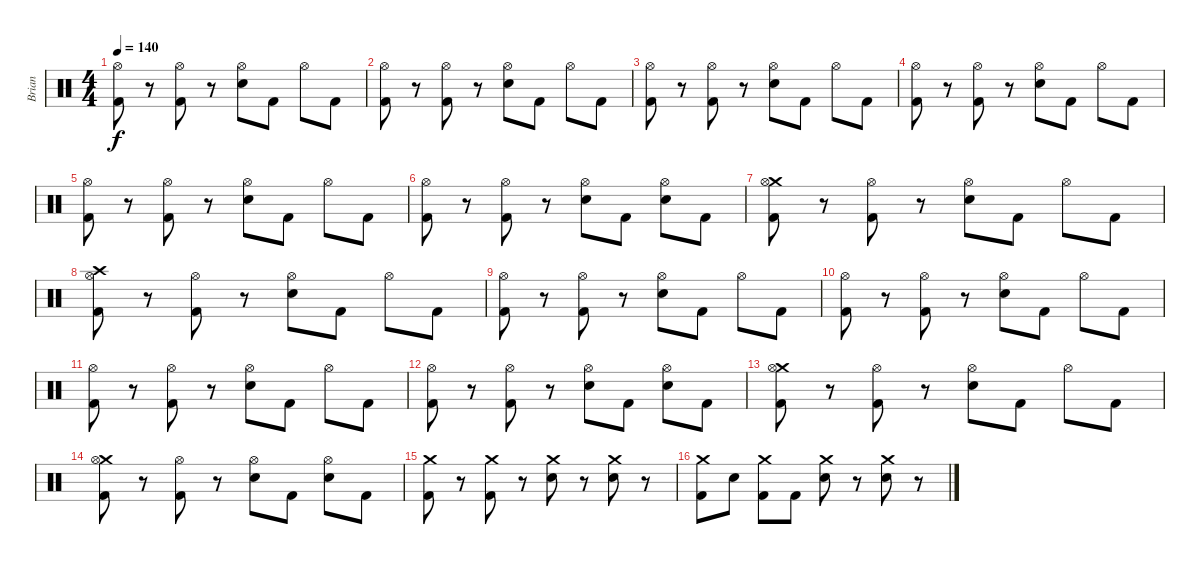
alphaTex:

\track ("Brian" "Brian") {instrument percussion}
\staff {score}
\articulation defaults
\ts (4 4)
\tempo 140
\clef neutral
\ks c
("Hi-Hat (open)" "Kick (hit) 2").8{dy f} r.8 ("Hi-Hat (open)" "Kick (hit) 2").8 r.8 ("Hi-Hat (open)" "Electric Snare (hit)").8 "Kick (hit) 2".8 "Hi-Hat (open)".8 "Kick (hit) 2".8 |
("Hi-Hat (open)" "Kick (hit) 2").8 r.8 ("Hi-Hat (open)" "Kick (hit) 2").8 r.8 ("Hi-Hat (open)" "Electric Snare (hit)").8 "Kick (hit) 2".8 "Hi-Hat (open)".8 "Kick (hit) 2".8 |
("Hi-Hat (open)" "Kick (hit) 2").8 r.8 ("Hi-Hat (open)" "Kick (hit) 2").8 r.8 ("Hi-Hat (open)" "Electric Snare (hit)").8 "Kick (hit) 2".8 "Hi-Hat (open)".8 "Kick (hit) 2".8 |
("Hi-Hat (open)" "Kick (hit) 2").8 r.8 ("Hi-Hat (open)" "Kick (hit) 2").8 r.8 ("Hi-Hat (open)" "Electric Snare (hit)").8 "Kick (hit) 2".8 "Hi-Hat (open)".8 "Kick (hit) 2".8 |
("Hi-Hat (open)" "Kick (hit) 2").8 r.8 ("Hi-Hat (open)" "Kick (hit) 2").8 r.8 ("Hi-Hat (open)" "Electric Snare (hit)").8 "Kick (hit) 2".8 "Hi-Hat (open)".8 "Kick (hit) 2".8 |
("Hi-Hat (open)" "Kick (hit) 2").8 r.8 ("Hi-Hat (open)" "Kick (hit) 2").8 r.8 ("Hi-Hat (open)" "Electric Snare (hit)").8 "Kick (hit) 2".8 ("Hi-Hat (open)" "Electric Snare (hit)").8 "Kick (hit) 2".8 |
("Crash medium (hit)" "Hi-Hat (open)" "Kick (hit) 2").8 r.8 ("Hi-Hat (open)" "Kick (hit) 2").8 r.8 ("Hi-Hat (open)" "Electric Snare (hit)").8 "Kick (hit) 2".8 "Hi-Hat (open)".8 "Kick (hit) 2".8 |
("Crash high (hit)" "Hi-Hat (open)" "Kick (hit) 2").8 r.8 ("Hi-Hat (open)" "Kick (hit) 2").8 r.8 ("Hi-Hat (open)" "Electric Snare (hit)").8 "Kick (hit) 2".8 "Hi-Hat (open)".8 "Kick (hit) 2".8 |
("Hi-Hat (open)" "Kick (hit) 2").8 r.8 ("Hi-Hat (open)" "Kick (hit) 2").8 r.8 ("Hi-Hat (open)" "Electric Snare (hit)").8 "Kick (hit) 2".8 "Hi-Hat (open)".8 "Kick (hit) 2".8 |
("Hi-Hat (open)" "Kick (hit) 2").8 r.8 ("Hi-Hat (open)" "Kick (hit) 2").8 r.8 ("Hi-Hat (open)" "Electric Snare (hit)").8 "Kick (hit) 2".8 "Hi-Hat (open)".8 "Kick (hit) 2".8 |
("Hi-Hat (open)" "Kick (hit) 2").8 r.8 ("Hi-Hat (open)" "Kick (hit) 2").8 r.8 ("Hi-Hat (open)" "Electric Snare (hit)").8 "Kick (hit) 2".8 "Hi-Hat (open)".8 "Kick (hit) 2".8 |
("Hi-Hat (open)" "Kick (hit) 2").8 r.8 ("Hi-Hat (open)" "Kick (hit) 2").8 r.8 ("Hi-Hat (open)" "Electric Snare (hit)").8 "Kick (hit) 2".8 ("Hi-Hat (open)" "Electric Snare (hit)").8 "Kick (hit) 2".8 |
("Crash medium (hit)" "Hi-Hat (open)" "Kick (hit) 2").8 r.8 ("Hi-Hat (open)" "Kick (hit) 2").8 r.8 ("Hi-Hat (open)" "Electric Snare (hit)").8 "Kick (hit) 2".8 "Hi-Hat (open)".8 "Kick (hit) 2".8 |
("Crash medium (hit)" "Hi-Hat (open)" "Kick (hit) 2").8 r.8 ("Hi-Hat (open)" "Kick (hit) 2").8 r.8 ("Hi-Hat (open)" "Electric Snare (hit)").8 "Kick (hit) 2".8 ("Hi-Hat (open)" "Electric Snare (hit)").8 "Kick (hit) 2".8 |
("Crash medium (hit)" "Kick (hit) 2").8 r.8 ("Crash medium (hit)" "Kick (hit) 2").8 r.8 ("Crash medium (hit)" "Electric Snare (hit)").8 r.8 ("Crash medium (hit)" "Electric Snare (hit)").8 r.8 |
("Crash medium (hit)" "Kick (hit) 2").8 "Electric Snare (hit)".8 ("Crash medium (hit)" "Kick (hit) 2").8 "Kick (hit) 2".8 ("Crash medium (hit)" "Electric Snare (hit)").8 r.8 ("Crash medium (hit)" "Electric Snare (hit)").8 r.8
